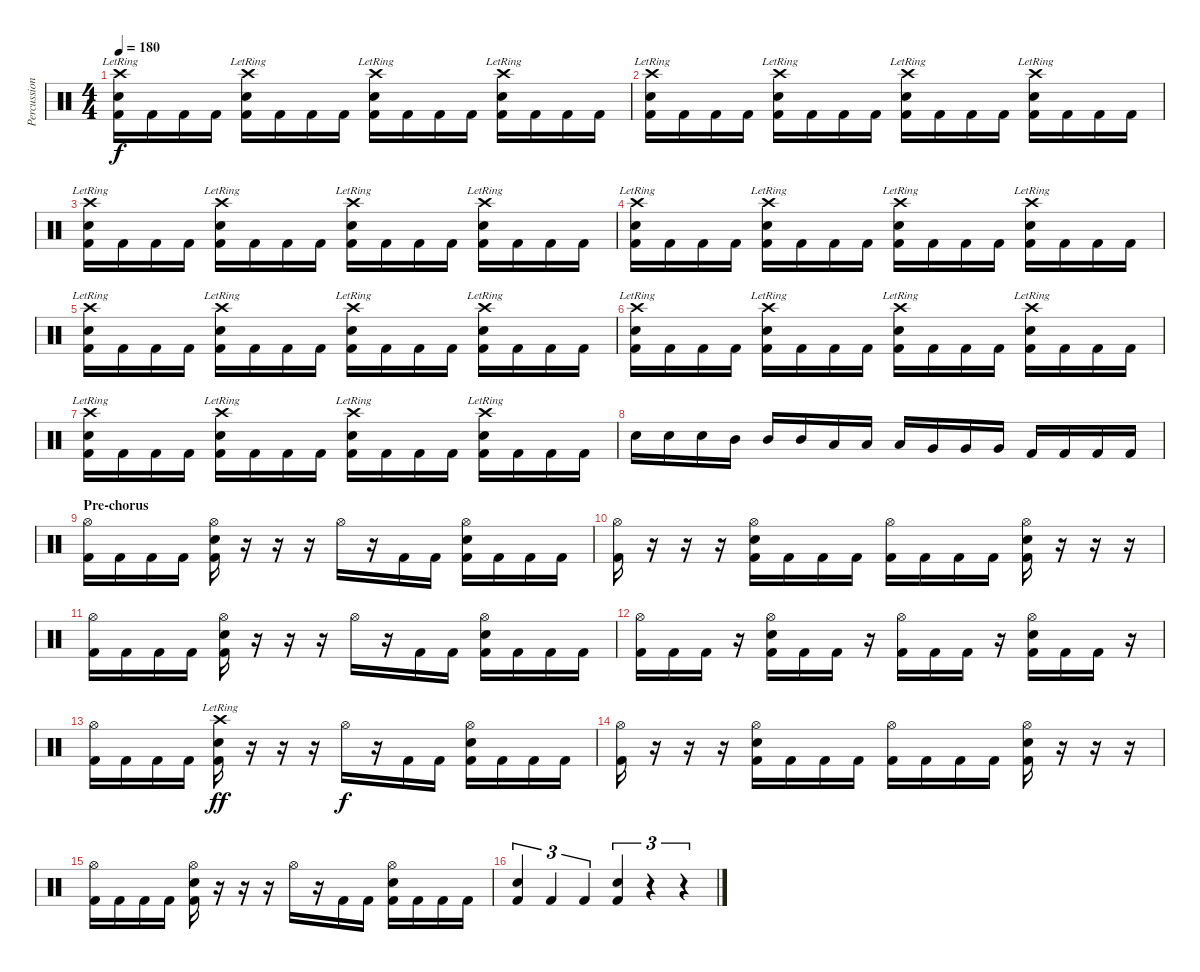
\track ("Percussions" "Percussion") {instrument percussion}
\staff {score}
\articulation defaults
\ts (4 4)
\tempo 180
\clef neutral
\ks c
("Crash high (hit)"{lr} "Electric Snare (hit)" "Kick (hit) 2").16{dy f} "Kick (hit) 2".16 "Kick (hit) 2".16 "Kick (hit) 2".16 ("Crash high (hit)"{lr} "Electric Snare (hit)" "Kick (hit) 2").16 "Kick (hit) 2".16 "Kick (hit) 2".16 "Kick (hit) 2".16 ("Crash high (hit)"{lr} "Electric Snare (hit)" "Kick (hit) 2").16 "Kick (hit) 2".16 "Kick (hit) 2".16 "Kick (hit) 2".16 ("Crash high (hit)"{lr} "Electric Snare (hit)" "Kick (hit) 2").16 "Kick (hit) 2".16 "Kick (hit) 2".16 "Kick (hit) 2".16 |
("Crash high (hit)"{lr} "Electric Snare (hit)" "Kick (hit) 2").16 "Kick (hit) 2".16 "Kick (hit) 2".16 "Kick (hit) 2".16 ("Crash high (hit)"{lr} "Electric Snare (hit)" "Kick (hit) 2").16 "Kick (hit) 2".16 "Kick (hit) 2".16 "Kick (hit) 2".16 ("Crash high (hit)"{lr} "Electric Snare (hit)" "Kick (hit) 2").16 "Kick (hit) 2".16 "Kick (hit) 2".16 "Kick (hit) 2".16 ("Crash high (hit)"{lr} "Electric Snare (hit)" "Kick (hit) 2").16 "Kick (hit) 2".16 "Kick (hit) 2".16 "Kick (hit) 2".16 |
("Crash high (hit)"{lr} "Electric Snare (hit)" "Kick (hit) 2").16 "Kick (hit) 2".16 "Kick (hit) 2".16 "Kick (hit) 2".16 ("Crash high (hit)"{lr} "Electric Snare (hit)" "Kick (hit) 2").16 "Kick (hit) 2".16 "Kick (hit) 2".16 "Kick (hit) 2".16 ("Crash high (hit)"{lr} "Electric Snare (hit)" "Kick (hit) 2").16 "Kick (hit) 2".16 "Kick (hit) 2".16 "Kick (hit) 2".16 ("Crash high (hit)"{lr} "Electric Snare (hit)" "Kick (hit) 2").16 "Kick (hit) 2".16 "Kick (hit) 2".16 "Kick (hit) 2".16 |
("Crash high (hit)"{lr} "Electric Snare (hit)" "Kick (hit) 2").16 "Kick (hit) 2".16 "Kick (hit) 2".16 "Kick (hit) 2".16 ("Crash high (hit)"{lr} "Electric Snare (hit)" "Kick (hit) 2").16 "Kick (hit) 2".16 "Kick (hit) 2".16 "Kick (hit) 2".16 ("Crash high (hit)"{lr} "Electric Snare (hit)" "Kick (hit) 2").16 "Kick (hit) 2".16 "Kick (hit) 2".16 "Kick (hit) 2".16 ("Crash high (hit)"{lr} "Electric Snare (hit)" "Kick (hit) 2").16 "Kick (hit) 2".16 "Kick (hit) 2".16 "Kick (hit) 2".16 |
("Crash high (hit)"{lr} "Electric Snare (hit)" "Kick (hit) 2").16 "Kick (hit) 2".16 "Kick (hit) 2".16 "Kick (hit) 2".16 ("Crash high (hit)"{lr} "Electric Snare (hit)" "Kick (hit) 2").16 "Kick (hit) 2".16 "Kick (hit) 2".16 "Kick (hit) 2".16 ("Crash high (hit)"{lr} "Electric Snare (hit)" "Kick (hit) 2").16 "Kick (hit) 2".16 "Kick (hit) 2".16 "Kick (hit) 2".16 ("Crash high (hit)"{lr} "Electric Snare (hit)" "Kick (hit) 2").16 "Kick (hit) 2".16 "Kick (hit) 2".16 "Kick (hit) 2".16 |
("Crash high (hit)"{lr} "Electric Snare (hit)" "Kick (hit) 2").16 "Kick (hit) 2".16 "Kick (hit) 2".16 "Kick (hit) 2".16 ("Crash high (hit)"{lr} "Electric Snare (hit)" "Kick (hit) 2").16 "Kick (hit) 2".16 "Kick (hit) 2".16 "Kick (hit) 2".16 ("Crash high (hit)"{lr} "Electric Snare (hit)" "Kick (hit) 2").16 "Kick (hit) 2".16 "Kick (hit) 2".16 "Kick (hit) 2".16 ("Crash high (hit)"{lr} "Electric Snare (hit)" "Kick (hit) 2").16 "Kick (hit) 2".16 "Kick (hit) 2".16 "Kick (hit) 2".16 |
("Crash high (hit)"{lr} "Electric Snare (hit)" "Kick (hit) 2").16 "Kick (hit) 2".16 "Kick (hit) 2".16 "Kick (hit) 2".16 ("Crash high (hit)"{lr} "Electric Snare (hit)" "Kick (hit) 2").16 "Kick (hit) 2".16 "Kick (hit) 2".16 "Kick (hit) 2".16 ("Crash high (hit)"{lr} "Electric Snare (hit)" "Kick (hit) 2").16 "Kick (hit) 2".16 "Kick (hit) 2".16 "Kick (hit) 2".16 ("Crash high (hit)"{lr} "Electric Snare (hit)" "Kick (hit) 2").16 "Kick (hit) 2".16 "Kick (hit) 2".16 "Kick (hit) 2".16 |
"Electric Snare (hit)".16 "Electric Snare (hit)".16 "Electric Snare (hit)".16 "Mid Tom (hit)".16 "Mid Tom (hit)".16 "Mid Tom (hit)".16 "Low Tom (hit)".16 "Low Tom (hit)".16 "Low Tom (hit)".16 "Very Low Tom (hit)".16 "Very Low Tom (hit)".16 "Very Low Tom (hit)".16 "Kick (hit) 2".16 "Kick (hit) 2".16 "Kick (hit) 2".16 "Kick (hit) 2".16 |
\section ("" "Pre-chorus")
("Hi-Hat (open)" "Kick (hit) 2").16 "Kick (hit) 2".16 "Kick (hit) 2".16 "Kick (hit) 2".16 ("Hi-Hat (open)" "Electric Snare (hit)" "Kick (hit) 2").16 r.16 r.16 r.16 "Hi-Hat (open)".16 r.16 "Kick (hit) 2".16 "Kick (hit) 2".16 ("Hi-Hat (open)" "Electric Snare (hit)" "Kick (hit) 2").16 "Kick (hit) 2".16 "Kick (hit) 2".16 "Kick (hit) 2".16 |
("Hi-Hat (open)" "Kick (hit) 2").16 r.16 r.16 r.16 ("Hi-Hat (open)" "Electric Snare (hit)" "Kick (hit) 2").16 "Kick (hit) 2".16 "Kick (hit) 2".16 "Kick (hit) 2".16 ("Hi-Hat (open)" "Kick (hit) 2").16 "Kick (hit) 2".16 "Kick (hit) 2".16 "Kick (hit) 2".16 ("Hi-Hat (open)" "Electric Snare (hit)" "Kick (hit) 2").16 r.16 r.16 r.16 |
("Hi-Hat (open)" "Kick (hit) 2").16 "Kick (hit) 2".16 "Kick (hit) 2".16 "Kick (hit) 2".16 ("Hi-Hat (open)" "Electric Snare (hit)" "Kick (hit) 2").16 r.16 r.16 r.16 "Hi-Hat (open)".16 r.16 "Kick (hit) 2".16 "Kick (hit) 2".16 ("Hi-Hat (open)" "Electric Snare (hit)" "Kick (hit) 2").16 "Kick (hit) 2".16 "Kick (hit) 2".16 "Kick (hit) 2".16 |
("Hi-Hat (open)" "Kick (hit) 2").16 "Kick (hit) 2".16 "Kick (hit) 2".16 r.16 ("Hi-Hat (open)" "Electric Snare (hit)" "Kick (hit) 2").16 "Kick (hit) 2".16 "Kick (hit) 2".16 r.16 ("Hi-Hat (open)" "Kick (hit) 2").16 "Kick (hit) 2".16 "Kick (hit) 2".16 r.16 ("Hi-Hat (open)" "Electric Snare (hit)" "Kick (hit) 2").16 "Kick (hit) 2".16 "Kick (hit) 2".16 r.16 |
("Hi-Hat (open)" "Kick (hit) 2").16 "Kick (hit) 2".16 "Kick (hit) 2".16 "Kick (hit) 2".16 ("Crash high (hit)"{lr} "Electric Snare (hit)" "Kick (hit) 2").16{dy ff} r.16 r.16 r.16 "Hi-Hat (open)".16{dy f} r.16 "Kick (hit) 2".16 "Kick (hit) 2".16 ("Hi-Hat (open)" "Electric Snare (hit)" "Kick (hit) 2").16 "Kick (hit) 2".16 "Kick (hit) 2".16 "Kick (hit) 2".16 |
("Hi-Hat (open)" "Kick (hit) 2").16 r.16 r.16 r.16 ("Hi-Hat (open)" "Electric Snare (hit)" "Kick (hit) 2").16 "Kick (hit) 2".16 "Kick (hit) 2".16 "Kick (hit) 2".16 ("Hi-Hat (open)" "Kick (hit) 2").16 "Kick (hit) 2".16 "Kick (hit) 2".16 "Kick (hit) 2".16 ("Hi-Hat (open)" "Electric Snare (hit)" "Kick (hit) 2").16 r.16 r.16 r.16 |
("Hi-Hat (open)" "Kick (hit) 2").16 "Kick (hit) 2".16 "Kick (hit) 2".16 "Kick (hit) 2".16 ("Hi-Hat (open)" "Electric Snare (hit)" "Kick (hit) 2").16 r.16 r.16 r.16 "Hi-Hat (open)".16 r.16 "Kick (hit) 2".16 "Kick (hit) 2".16 ("Hi-Hat (open)" "Electric Snare (hit)" "Kick (hit) 2").16 "Kick (hit) 2".16 "Kick (hit) 2".16 "Kick (hit) 2".16 |
("Electric Snare (hit)" "Kick (hit) 2").4{tu (3 2)} "Kick (hit) 2".4{tu (3 2)} "Kick (hit) 2".4{tu (3 2)} ("Electric Snare (hit)" "Kick (hit) 2").4{tu (3 2)} r.4{tu (3 2)} r.4{tu (3 2)}
